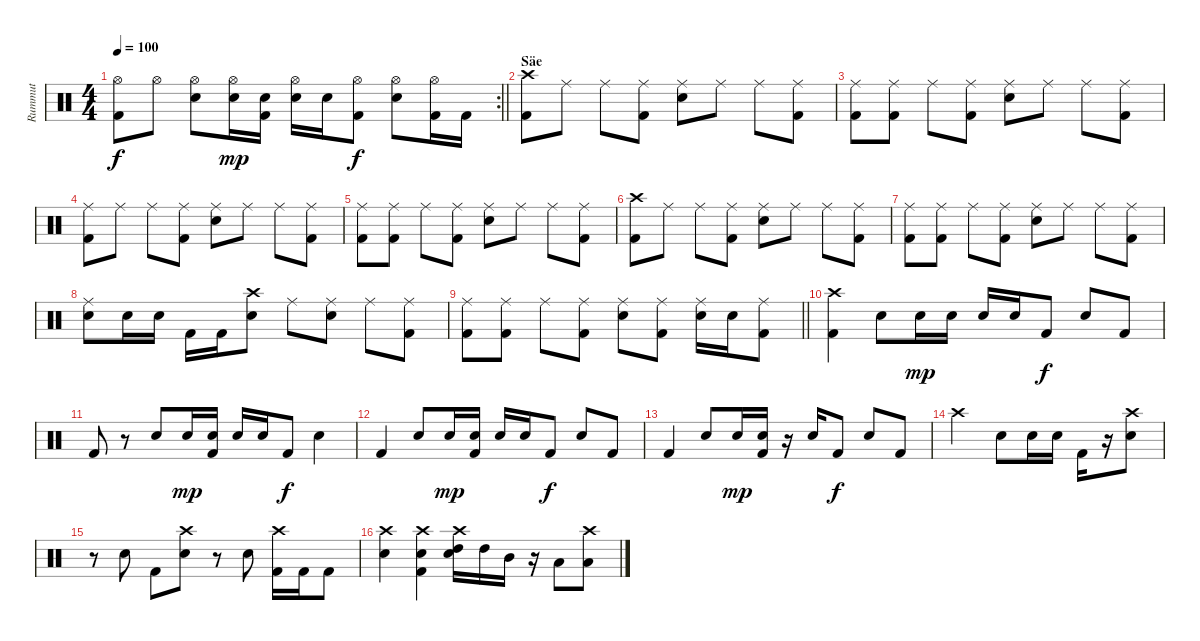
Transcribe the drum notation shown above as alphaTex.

\track ("Rummut" "Rummut") {instrument percussion}
\staff {score}
\articulation defaults
\rc 2
\ts (4 4)
\tempo 100
\clef neutral
\barLineRight lightlight
\ks c
("Hi-Hat (open)" "Kick (hit) 2").8{dy f} "Hi-Hat (open)".8 ("Hi-Hat (open)" "Snare (hit) 2").8 ("Hi-Hat (open)" "Snare (hit) 2").16{dy mp} ("Snare (hit) 2" "Kick (hit) 2").16 ("Hi-Hat (open)" "Snare (hit) 2").16 "Snare (hit) 2".16 ("Hi-Hat (open)" "Kick (hit) 2").8{dy f} ("Hi-Hat (open)" "Snare (hit) 2").8 ("Hi-Hat (open)" "Kick (hit) 2").16 "Kick (hit) 2".16 |
\section ("" "Säe")
("Crash high (hit)" "Kick (hit) 2").8 "Ride (middle)".8 "Ride (middle)".8 ("Ride (middle)" "Kick (hit) 2").8 ("Ride (middle)" "Snare (hit) 2").8 "Ride (middle)".8 "Ride (middle)".8 ("Ride (middle)" "Kick (hit) 2").8 |
("Ride (middle)" "Kick (hit) 2").8 ("Ride (middle)" "Kick (hit) 2").8 "Ride (middle)".8 ("Ride (middle)" "Kick (hit) 2").8 ("Ride (middle)" "Snare (hit) 2").8 "Ride (middle)".8 "Ride (middle)".8 ("Ride (middle)" "Kick (hit) 2").8 |
("Ride (middle)" "Kick (hit) 2").8 "Ride (middle)".8 "Ride (middle)".8 ("Ride (middle)" "Kick (hit) 2").8 ("Ride (middle)" "Snare (hit) 2").8 "Ride (middle)".8 "Ride (middle)".8 ("Ride (middle)" "Kick (hit) 2").8 |
("Ride (middle)" "Kick (hit) 2").8 ("Ride (middle)" "Kick (hit) 2").8 "Ride (middle)".8 ("Ride (middle)" "Kick (hit) 2").8 ("Ride (middle)" "Snare (hit) 2").8 "Ride (middle)".8 "Ride (middle)".8 ("Ride (middle)" "Kick (hit) 2").8 |
("Crash high (hit)" "Kick (hit) 2").8 "Ride (middle)".8 "Ride (middle)".8 ("Ride (middle)" "Kick (hit) 2").8 ("Ride (middle)" "Snare (hit) 2").8 "Ride (middle)".8 "Ride (middle)".8 ("Ride (middle)" "Kick (hit) 2").8 |
("Ride (middle)" "Kick (hit) 2").8 ("Ride (middle)" "Kick (hit) 2").8 "Ride (middle)".8 ("Ride (middle)" "Kick (hit) 2").8 ("Ride (middle)" "Snare (hit) 2").8 "Ride (middle)".8 "Ride (middle)".8 ("Ride (middle)" "Kick (hit) 2").8 |
("Ride (middle)" "Snare (hit) 2").8 "Snare (hit) 2".16 "Snare (hit) 2".16 "Kick (hit) 2".16 "Kick (hit) 2".16 ("Crash high (hit)" "Snare (hit) 2").8 "Ride (middle)".8 ("Ride (middle)" "Snare (hit) 2").8 "Ride (middle)".8 ("Ride (middle)" "Kick (hit) 2").8 |
\barLineRight lightlight
("Ride (middle)" "Kick (hit) 2").8 ("Ride (middle)" "Kick (hit) 2").8 "Ride (middle)".8 ("Ride (middle)" "Kick (hit) 2").8 ("Ride (middle)" "Snare (hit) 2").8 ("Ride (middle)" "Kick (hit) 2").8 ("Ride (middle)" "Snare (hit) 2").16 "Snare (hit) 2".16 ("Ride (middle)" "Kick (hit) 2").8 |
("Crash high (hit)" "Kick (hit) 2").4 "Snare (hit) 2".8 "Snare (hit) 2".16{dy mp} "Snare (hit) 2".16 "Snare (hit) 2".16 "Snare (hit) 2".16 "Kick (hit) 2".8{dy f} "Snare (hit) 2".8 "Kick (hit) 2".8 |
"Kick (hit) 2".8 r.8 "Snare (hit) 2".8 "Snare (hit) 2".16{dy mp} ("Snare (hit) 2" "Kick (hit) 2").16 "Snare (hit) 2".16 "Snare (hit) 2".16 "Kick (hit) 2".8{dy f} "Snare (hit) 2".4 |
"Kick (hit) 2".4 "Snare (hit) 2".8 "Snare (hit) 2".16{dy mp} ("Snare (hit) 2" "Kick (hit) 2").16 "Snare (hit) 2".16 "Snare (hit) 2".16 "Kick (hit) 2".8{dy f} "Snare (hit) 2".8 "Kick (hit) 2".8 |
"Kick (hit) 2".4 "Snare (hit) 2".8 "Snare (hit) 2".16{dy mp} ("Snare (hit) 2" "Kick (hit) 2").16 r.16 "Snare (hit) 2".16 "Kick (hit) 2".8{dy f} "Snare (hit) 2".8 "Kick (hit) 2".8 |
"Crash high (hit)".2 "Snare (hit) 2".8 "Snare (hit) 2".16 "Snare (hit) 2".16 "Kick (hit) 2".16 r.16 ("Crash high (hit)" "Snare (hit) 2").8 |
r.8 "Snare (hit) 2".8 "Kick (hit) 2".8 ("Crash high (hit)" "Snare (hit) 2").8 r.8 "Snare (hit) 2".8 ("Crash high (hit)" "Kick (hit) 2").16 "Kick (hit) 2".16 "Kick (hit) 2".8 |
("Crash high (hit)" "Snare (hit) 2").4 ("Crash high (hit)" "Snare (hit) 2" "Kick (hit) 2").4 ("Crash high (hit)" "High Tom (hit)" "Snare (hit) 2").16 "High Tom (hit)".16 "Mid Tom (hit)".16 r.16 "Low Tom (hit)".8 ("Crash high (hit)" "Low Floor Tom (hit)").8
